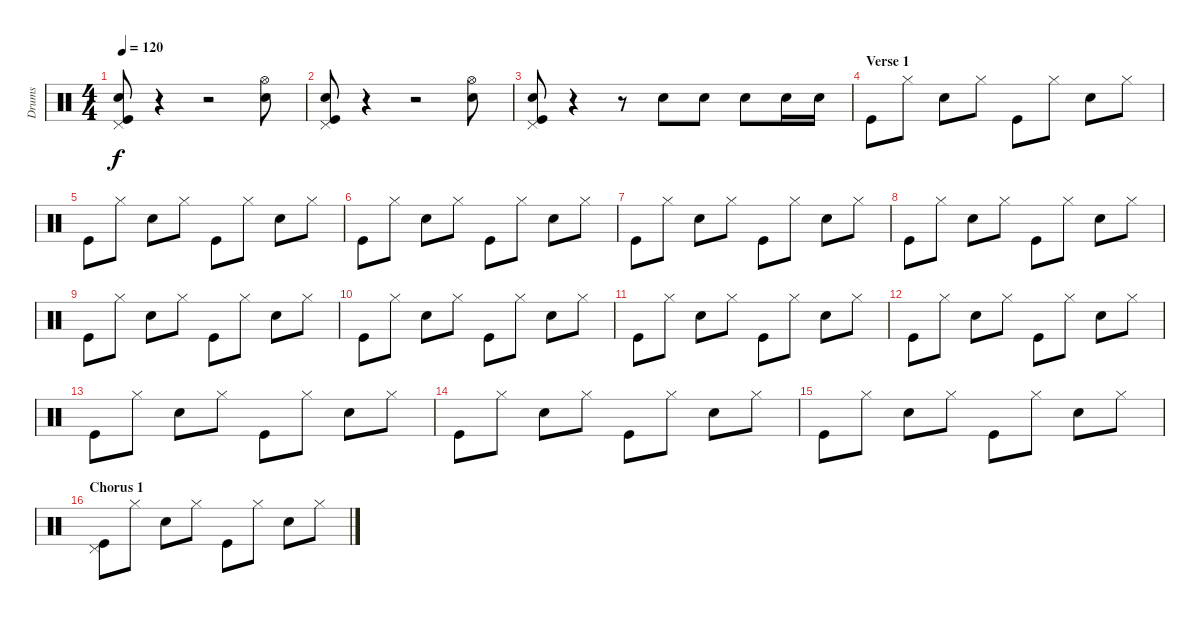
\track ("Drums" "Drums") {instrument percussion}
\staff {score}
\articulation defaults
\ts (4 4)
\tempo 120
\clef neutral
\ks c
("Pedal Hi-Hat (hit)" "Snare (hit) 2" "Kick (hit)").8{dy f} r.4 r.2 ("Hi-Hat (open)" "Snare (hit) 2").8 |
("Pedal Hi-Hat (hit)" "Snare (hit) 2" "Kick (hit)").8 r.4 r.2 ("Hi-Hat (open)" "Snare (hit) 2").8 |
("Pedal Hi-Hat (hit)" "Snare (hit) 2" "Kick (hit)").8 r.4 r.8 "Snare (hit) 2".8 "Snare (hit) 2".8 "Snare (hit) 2".8 "Snare (hit) 2".16 "Snare (hit) 2".16 |
\section ("" "Verse 1")
"Kick (hit)".8 "Hi-Hat (closed)".8 "Snare (hit) 2".8 "Hi-Hat (closed)".8 "Kick (hit)".8 "Hi-Hat (closed)".8 "Snare (hit) 2".8 "Hi-Hat (closed)".8 |
"Kick (hit)".8 "Hi-Hat (closed)".8 "Snare (hit) 2".8 "Hi-Hat (closed)".8 "Kick (hit)".8 "Hi-Hat (closed)".8 "Snare (hit) 2".8 "Hi-Hat (closed)".8 |
"Kick (hit)".8 "Hi-Hat (closed)".8 "Snare (hit) 2".8 "Hi-Hat (closed)".8 "Kick (hit)".8 "Hi-Hat (closed)".8 "Snare (hit) 2".8 "Hi-Hat (closed)".8 |
"Kick (hit)".8 "Hi-Hat (closed)".8 "Snare (hit) 2".8 "Hi-Hat (closed)".8 "Kick (hit)".8 "Hi-Hat (closed)".8 "Snare (hit) 2".8 "Hi-Hat (closed)".8 |
"Kick (hit)".8 "Hi-Hat (closed)".8 "Snare (hit) 2".8 "Hi-Hat (closed)".8 "Kick (hit)".8 "Hi-Hat (closed)".8 "Snare (hit) 2".8 "Hi-Hat (closed)".8 |
"Kick (hit)".8 "Hi-Hat (closed)".8 "Snare (hit) 2".8 "Hi-Hat (closed)".8 "Kick (hit)".8 "Hi-Hat (closed)".8 "Snare (hit) 2".8 "Hi-Hat (closed)".8 |
"Kick (hit)".8 "Hi-Hat (closed)".8 "Snare (hit) 2".8 "Hi-Hat (closed)".8 "Kick (hit)".8 "Hi-Hat (closed)".8 "Snare (hit) 2".8 "Hi-Hat (closed)".8 |
"Kick (hit)".8 "Hi-Hat (closed)".8 "Snare (hit) 2".8 "Hi-Hat (closed)".8 "Kick (hit)".8 "Hi-Hat (closed)".8 "Snare (hit) 2".8 "Hi-Hat (closed)".8 |
"Kick (hit)".8 "Hi-Hat (closed)".8 "Snare (hit) 2".8 "Hi-Hat (closed)".8 "Kick (hit)".8 "Hi-Hat (closed)".8 "Snare (hit) 2".8 "Hi-Hat (closed)".8 |
"Kick (hit)".8 "Hi-Hat (closed)".8 "Snare (hit) 2".8 "Hi-Hat (closed)".8 "Kick (hit)".8 "Hi-Hat (closed)".8 "Snare (hit) 2".8 "Hi-Hat (closed)".8 |
"Kick (hit)".8 "Hi-Hat (closed)".8 "Snare (hit) 2".8 "Hi-Hat (closed)".8 "Kick (hit)".8 "Hi-Hat (closed)".8 "Snare (hit) 2".8 "Hi-Hat (closed)".8 |
"Kick (hit)".8 "Hi-Hat (closed)".8 "Snare (hit) 2".8 "Hi-Hat (closed)".8 "Kick (hit)".8 "Hi-Hat (closed)".8 "Snare (hit) 2".8 "Hi-Hat (closed)".8 |
\section ("" "Chorus 1")
("Pedal Hi-Hat (hit)" "Kick (hit)").8 "Hi-Hat (closed)".8 "Snare (hit) 2".8 "Hi-Hat (closed)".8 "Kick (hit)".8 "Hi-Hat (closed)".8 "Snare (hit) 2".8 "Hi-Hat (closed)".8
